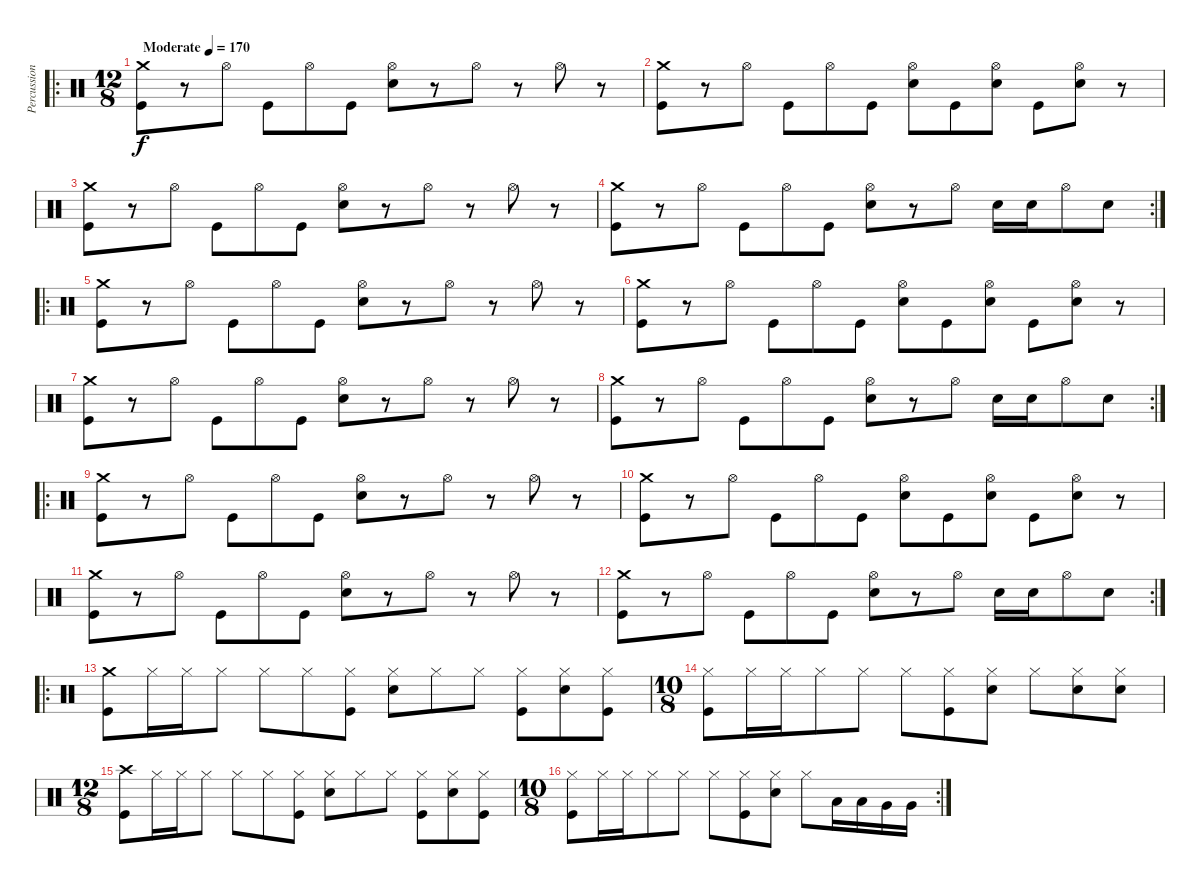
\track ("Percussion" "Percussion") {instrument percussion}
\staff {score}
\articulation defaults
\ro
\ts (12 8)
\tempo (170 "Moderate")
\clef neutral
\ks c
("Crash medium (hit)" "Kick (hit)").8{dy f} r.8 "Hi-Hat (open)".8 "Kick (hit)".8 "Hi-Hat (open)".8 "Kick (hit)".8 ("Hi-Hat (open)" "Snare (hit) 2").8 r.8 "Hi-Hat (open)".8 r.8 "Hi-Hat (open)".8 r.8 |
("Crash medium (hit)" "Kick (hit)").8 r.8 "Hi-Hat (open)".8 "Kick (hit)".8 "Hi-Hat (open)".8 "Kick (hit)".8 ("Hi-Hat (open)" "Snare (hit) 2").8 "Kick (hit)".8 ("Hi-Hat (open)" "Snare (hit) 2").8 "Kick (hit)".8 ("Hi-Hat (open)" "Snare (hit) 2").8 r.8 |
("Crash medium (hit)" "Kick (hit)").8 r.8 "Hi-Hat (open)".8 "Kick (hit)".8 "Hi-Hat (open)".8 "Kick (hit)".8 ("Hi-Hat (open)" "Snare (hit) 2").8 r.8 "Hi-Hat (open)".8 r.8 "Hi-Hat (open)".8 r.8 |
\rc 2
("Crash medium (hit)" "Kick (hit)").8 r.8 "Hi-Hat (open)".8 "Kick (hit)".8 "Hi-Hat (open)".8 "Kick (hit)".8 ("Hi-Hat (open)" "Snare (hit) 2").8 r.8 "Hi-Hat (open)".8 "Snare (hit) 2".16 "Snare (hit) 2".16 "Hi-Hat (open)".8 "Snare (hit) 2".8 |
\ro
("Crash medium (hit)" "Kick (hit)").8 r.8 "Hi-Hat (open)".8 "Kick (hit)".8 "Hi-Hat (open)".8 "Kick (hit)".8 ("Hi-Hat (open)" "Snare (hit) 2").8 r.8 "Hi-Hat (open)".8 r.8 "Hi-Hat (open)".8 r.8 |
("Crash medium (hit)" "Kick (hit)").8 r.8 "Hi-Hat (open)".8 "Kick (hit)".8 "Hi-Hat (open)".8 "Kick (hit)".8 ("Hi-Hat (open)" "Snare (hit) 2").8 "Kick (hit)".8 ("Hi-Hat (open)" "Snare (hit) 2").8 "Kick (hit)".8 ("Hi-Hat (open)" "Snare (hit) 2").8 r.8 |
("Crash medium (hit)" "Kick (hit)").8 r.8 "Hi-Hat (open)".8 "Kick (hit)".8 "Hi-Hat (open)".8 "Kick (hit)".8 ("Hi-Hat (open)" "Snare (hit) 2").8 r.8 "Hi-Hat (open)".8 r.8 "Hi-Hat (open)".8 r.8 |
\rc 2
("Crash medium (hit)" "Kick (hit)").8 r.8 "Hi-Hat (open)".8 "Kick (hit)".8 "Hi-Hat (open)".8 "Kick (hit)".8 ("Hi-Hat (open)" "Snare (hit) 2").8 r.8 "Hi-Hat (open)".8 "Snare (hit) 2".16 "Snare (hit) 2".16 "Hi-Hat (open)".8 "Snare (hit) 2".8 |
\ro
("Crash medium (hit)" "Kick (hit)").8 r.8 "Hi-Hat (open)".8 "Kick (hit)".8 "Hi-Hat (open)".8 "Kick (hit)".8 ("Hi-Hat (open)" "Snare (hit) 2").8 r.8 "Hi-Hat (open)".8 r.8 "Hi-Hat (open)".8 r.8 |
("Crash medium (hit)" "Kick (hit)").8 r.8 "Hi-Hat (open)".8 "Kick (hit)".8 "Hi-Hat (open)".8 "Kick (hit)".8 ("Hi-Hat (open)" "Snare (hit) 2").8 "Kick (hit)".8 ("Hi-Hat (open)" "Snare (hit) 2").8 "Kick (hit)".8 ("Hi-Hat (open)" "Snare (hit) 2").8 r.8 |
("Crash medium (hit)" "Kick (hit)").8 r.8 "Hi-Hat (open)".8 "Kick (hit)".8 "Hi-Hat (open)".8 "Kick (hit)".8 ("Hi-Hat (open)" "Snare (hit) 2").8 r.8 "Hi-Hat (open)".8 r.8 "Hi-Hat (open)".8 r.8 |
\rc 2
("Crash medium (hit)" "Kick (hit)").8 r.8 "Hi-Hat (open)".8 "Kick (hit)".8 "Hi-Hat (open)".8 "Kick (hit)".8 ("Hi-Hat (open)" "Snare (hit) 2").8 r.8 "Hi-Hat (open)".8 "Snare (hit) 2".16 "Snare (hit) 2".16 "Hi-Hat (open)".8 "Snare (hit) 2".8 |
\ro
("Crash medium (hit)" "Kick (hit)").8 "Hi-Hat (closed)".16 "Hi-Hat (closed)".16 "Hi-Hat (closed)".8 "Hi-Hat (closed)".8 "Hi-Hat (closed)".8 ("Hi-Hat (closed)" "Kick (hit)").8 ("Hi-Hat (closed)" "Snare (hit) 2").8 "Hi-Hat (closed)".8 "Hi-Hat (closed)".8 ("Hi-Hat (closed)" "Kick (hit)").8 ("Hi-Hat (closed)" "Snare (hit) 2").8 ("Hi-Hat (closed)" "Kick (hit)").8 |
\ts (10 8)
("Hi-Hat (closed)" "Kick (hit)").8 "Hi-Hat (closed)".16 "Hi-Hat (closed)".16 "Hi-Hat (closed)".8 "Hi-Hat (closed)".8 "Hi-Hat (closed)".8 ("Hi-Hat (closed)" "Kick (hit)").8 ("Hi-Hat (closed)" "Snare (hit) 2").8 "Hi-Hat (closed)".8 ("Hi-Hat (closed)" "Snare (hit) 2").8 ("Hi-Hat (closed)" "Snare (hit) 2").8 |
\ts (12 8)
("Crash high (hit)" "Kick (hit)").8 "Hi-Hat (closed)".16 "Hi-Hat (closed)".16 "Hi-Hat (closed)".8 "Hi-Hat (closed)".8 "Hi-Hat (closed)".8 ("Hi-Hat (closed)" "Kick (hit)").8 ("Hi-Hat (closed)" "Snare (hit) 2").8 "Hi-Hat (closed)".8 "Hi-Hat (closed)".8 ("Hi-Hat (closed)" "Kick (hit)").8 ("Hi-Hat (closed)" "Snare (hit) 2").8 ("Hi-Hat (closed)" "Kick (hit)").8 |
\rc 2
\ts (10 8)
("Hi-Hat (closed)" "Kick (hit)").8 "Hi-Hat (closed)".16 "Hi-Hat (closed)".16 "Hi-Hat (closed)".8 "Hi-Hat (closed)".8 "Hi-Hat (closed)".8 ("Hi-Hat (closed)" "Kick (hit)").8 ("Hi-Hat (closed)" "Snare (hit) 2").8 "Hi-Hat (closed)".8 "Low Tom (hit)".16 "Low Tom (hit)".16 "Very Low Tom (hit)".16 "Very Low Tom (hit)".16
